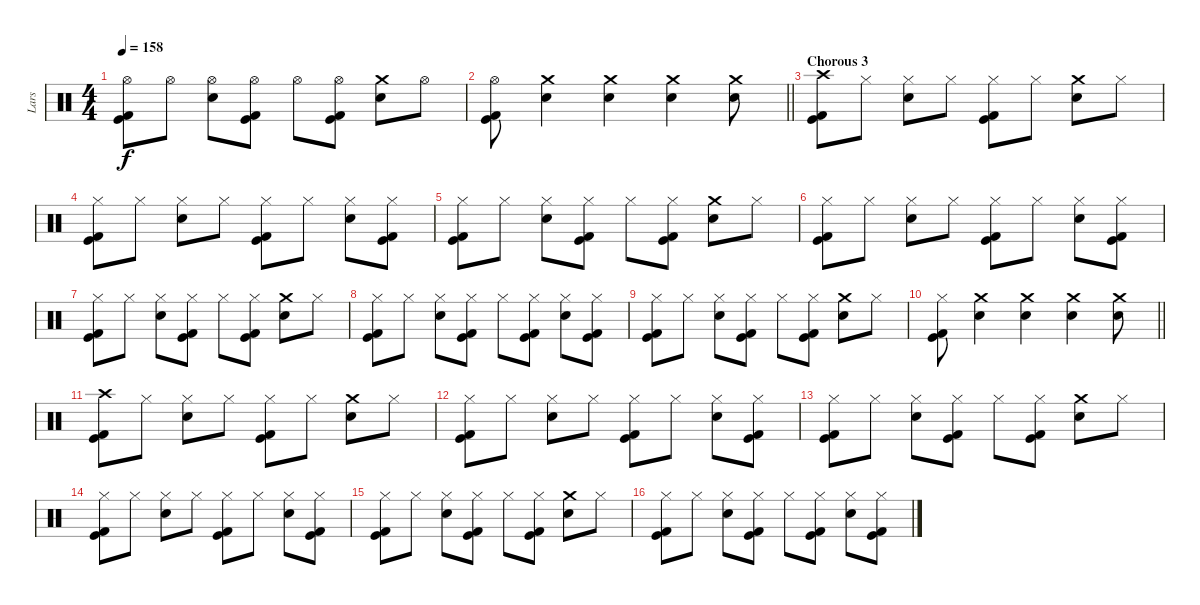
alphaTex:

\track ("Lars" "Lars") {instrument percussion}
\staff {score}
\articulation defaults
\ts (4 4)
\tempo 158
\clef neutral
\ks c
("Hi-Hat (open)" "Kick (hit)" "Kick (hit) 2").8{dy f} "Hi-Hat (open)".8 ("Hi-Hat (open)" "Electric Snare (hit)").8 ("Hi-Hat (open)" "Kick (hit)" "Kick (hit) 2").8 "Hi-Hat (open)".8 ("Hi-Hat (open)" "Kick (hit)" "Kick (hit) 2").8 ("Crash medium (hit)" "Electric Snare (hit)").8 "Hi-Hat (open)".8 |
\barLineRight lightlight
("Hi-Hat (open)" "Kick (hit)" "Kick (hit) 2").8 ("Crash medium (hit)" "Electric Snare (hit)").4 ("Crash medium (hit)" "Electric Snare (hit)").4 ("Crash medium (hit)" "Electric Snare (hit)").4 ("Crash medium (hit)" "Electric Snare (hit)").8 |
\section ("" "Chorous 3")
("Crash high (hit)" "Kick (hit)" "Kick (hit) 2").8 "Hi-Hat (closed)".8 ("Hi-Hat (closed)" "Electric Snare (hit)").8 "Hi-Hat (closed)".8 ("Hi-Hat (closed)" "Kick (hit)" "Kick (hit) 2").8 "Hi-Hat (closed)".8 ("Crash medium (hit)" "Electric Snare (hit)").8 "Hi-Hat (closed)".8 |
("Hi-Hat (closed)" "Kick (hit)" "Kick (hit) 2").8 "Hi-Hat (closed)".8 ("Hi-Hat (closed)" "Electric Snare (hit)").8 "Hi-Hat (closed)".8 ("Hi-Hat (closed)" "Kick (hit)" "Kick (hit) 2").8 "Hi-Hat (closed)".8 ("Hi-Hat (closed)" "Electric Snare (hit)").8 ("Hi-Hat (closed)" "Kick (hit)" "Kick (hit) 2").8 |
("Hi-Hat (closed)" "Kick (hit)" "Kick (hit) 2").8 "Hi-Hat (closed)".8 ("Hi-Hat (closed)" "Electric Snare (hit)").8 ("Hi-Hat (closed)" "Kick (hit)" "Kick (hit) 2").8 "Hi-Hat (closed)".8 ("Hi-Hat (closed)" "Kick (hit)" "Kick (hit) 2").8 ("Crash medium (hit)" "Electric Snare (hit)").8 "Hi-Hat (closed)".8 |
("Hi-Hat (closed)" "Kick (hit)" "Kick (hit) 2").8 "Hi-Hat (closed)".8 ("Hi-Hat (closed)" "Electric Snare (hit)").8 "Hi-Hat (closed)".8 ("Hi-Hat (closed)" "Kick (hit)" "Kick (hit) 2").8 "Hi-Hat (closed)".8 ("Hi-Hat (closed)" "Electric Snare (hit)").8 ("Hi-Hat (closed)" "Kick (hit)" "Kick (hit) 2").8 |
("Hi-Hat (closed)" "Kick (hit)" "Kick (hit) 2").8 "Hi-Hat (closed)".8 ("Hi-Hat (closed)" "Electric Snare (hit)").8 ("Hi-Hat (closed)" "Kick (hit)" "Kick (hit) 2").8 "Hi-Hat (closed)".8 ("Hi-Hat (closed)" "Kick (hit)" "Kick (hit) 2").8 ("Crash medium (hit)" "Electric Snare (hit)").8 "Hi-Hat (closed)".8 |
("Hi-Hat (closed)" "Kick (hit)" "Kick (hit) 2").8 "Hi-Hat (closed)".8 ("Hi-Hat (closed)" "Electric Snare (hit)").8 ("Hi-Hat (closed)" "Kick (hit)" "Kick (hit) 2").8 "Hi-Hat (closed)".8 ("Hi-Hat (closed)" "Kick (hit)" "Kick (hit) 2").8 ("Hi-Hat (closed)" "Electric Snare (hit)").8 ("Hi-Hat (closed)" "Kick (hit)" "Kick (hit) 2").8 |
("Hi-Hat (closed)" "Kick (hit)" "Kick (hit) 2").8 "Hi-Hat (closed)".8 ("Hi-Hat (closed)" "Electric Snare (hit)").8 ("Hi-Hat (closed)" "Kick (hit)" "Kick (hit) 2").8 "Hi-Hat (closed)".8 ("Hi-Hat (closed)" "Kick (hit)" "Kick (hit) 2").8 ("Crash medium (hit)" "Electric Snare (hit)").8 "Hi-Hat (closed)".8 |
\barLineRight lightlight
("Hi-Hat (closed)" "Kick (hit)" "Kick (hit) 2").8 ("Crash medium (hit)" "Electric Snare (hit)").4 ("Crash medium (hit)" "Electric Snare (hit)").4 ("Crash medium (hit)" "Electric Snare (hit)").4 ("Crash medium (hit)" "Electric Snare (hit)").8 |
\section ("" "")
("Crash high (hit)" "Kick (hit)" "Kick (hit) 2").8 "Hi-Hat (closed)".8 ("Hi-Hat (closed)" "Electric Snare (hit)").8 "Hi-Hat (closed)".8 ("Hi-Hat (closed)" "Kick (hit)" "Kick (hit) 2").8 "Hi-Hat (closed)".8 ("Crash medium (hit)" "Electric Snare (hit)").8 "Hi-Hat (closed)".8 |
("Hi-Hat (closed)" "Kick (hit)" "Kick (hit) 2").8 "Hi-Hat (closed)".8 ("Hi-Hat (closed)" "Electric Snare (hit)").8 "Hi-Hat (closed)".8 ("Hi-Hat (closed)" "Kick (hit)" "Kick (hit) 2").8 "Hi-Hat (closed)".8 ("Hi-Hat (closed)" "Electric Snare (hit)").8 ("Hi-Hat (closed)" "Kick (hit)" "Kick (hit) 2").8 |
("Hi-Hat (closed)" "Kick (hit)" "Kick (hit) 2").8 "Hi-Hat (closed)".8 ("Hi-Hat (closed)" "Electric Snare (hit)").8 ("Hi-Hat (closed)" "Kick (hit)" "Kick (hit) 2").8 "Hi-Hat (closed)".8 ("Hi-Hat (closed)" "Kick (hit)" "Kick (hit) 2").8 ("Crash medium (hit)" "Electric Snare (hit)").8 "Hi-Hat (closed)".8 |
("Hi-Hat (closed)" "Kick (hit)" "Kick (hit) 2").8 "Hi-Hat (closed)".8 ("Hi-Hat (closed)" "Electric Snare (hit)").8 "Hi-Hat (closed)".8 ("Hi-Hat (closed)" "Kick (hit)" "Kick (hit) 2").8 "Hi-Hat (closed)".8 ("Hi-Hat (closed)" "Electric Snare (hit)").8 ("Hi-Hat (closed)" "Kick (hit)" "Kick (hit) 2").8 |
("Hi-Hat (closed)" "Kick (hit)" "Kick (hit) 2").8 "Hi-Hat (closed)".8 ("Hi-Hat (closed)" "Electric Snare (hit)").8 ("Hi-Hat (closed)" "Kick (hit)" "Kick (hit) 2").8 "Hi-Hat (closed)".8 ("Hi-Hat (closed)" "Kick (hit)" "Kick (hit) 2").8 ("Crash medium (hit)" "Electric Snare (hit)").8 "Hi-Hat (closed)".8 |
("Hi-Hat (closed)" "Kick (hit)" "Kick (hit) 2").8 "Hi-Hat (closed)".8 ("Hi-Hat (closed)" "Electric Snare (hit)").8 ("Hi-Hat (closed)" "Kick (hit)" "Kick (hit) 2").8 "Hi-Hat (closed)".8 ("Hi-Hat (closed)" "Kick (hit)" "Kick (hit) 2").8 ("Hi-Hat (closed)" "Electric Snare (hit)").8 ("Hi-Hat (closed)" "Kick (hit)" "Kick (hit) 2").8
